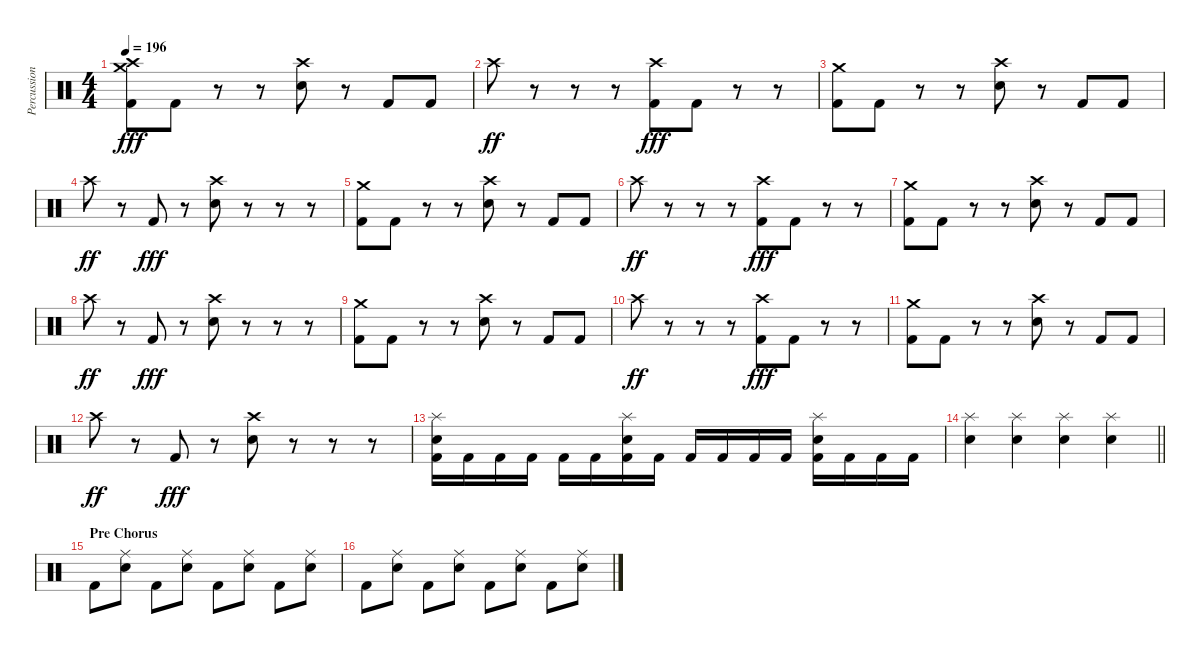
\track ("Percussion" "Percussion") {instrument percussion}
\staff {score}
\articulation defaults
\ts (4 4)
\tempo 196
\clef neutral
\ks c
("Crash medium (hit)" "Crash high (hit)" "Kick (hit) 2").8{dy fff} "Kick (hit) 2".8 r.8 r.8 ("Crash high (hit)" "Electric Snare (hit)").8 r.8 "Kick (hit) 2".8 "Kick (hit) 2".8 |
"Crash high (hit)".8{dy ff} r.8 r.8 r.8 ("Crash high (hit)" "Kick (hit) 2").8{dy fff} "Kick (hit) 2".8 r.8 r.8 |
("Crash medium (hit)" "Kick (hit) 2").8 "Kick (hit) 2".8 r.8 r.8 ("Crash high (hit)" "Electric Snare (hit)").8 r.8 "Kick (hit) 2".8 "Kick (hit) 2".8 |
"Crash high (hit)".8{dy ff} r.8 "Kick (hit) 2".8{dy fff} r.8 ("Crash high (hit)" "Electric Snare (hit)").8 r.8 r.8 r.8 |
("Crash medium (hit)" "Kick (hit) 2").8 "Kick (hit) 2".8 r.8 r.8 ("Crash high (hit)" "Electric Snare (hit)").8 r.8 "Kick (hit) 2".8 "Kick (hit) 2".8 |
"Crash high (hit)".8{dy ff} r.8 r.8 r.8 ("Crash high (hit)" "Kick (hit) 2").8{dy fff} "Kick (hit) 2".8 r.8 r.8 |
("Crash medium (hit)" "Kick (hit) 2").8 "Kick (hit) 2".8 r.8 r.8 ("Crash high (hit)" "Electric Snare (hit)").8 r.8 "Kick (hit) 2".8 "Kick (hit) 2".8 |
"Crash high (hit)".8{dy ff} r.8 "Kick (hit) 2".8{dy fff} r.8 ("Crash high (hit)" "Electric Snare (hit)").8 r.8 r.8 r.8 |
("Crash medium (hit)" "Kick (hit) 2").8 "Kick (hit) 2".8 r.8 r.8 ("Crash high (hit)" "Electric Snare (hit)").8 r.8 "Kick (hit) 2".8 "Kick (hit) 2".8 |
"Crash high (hit)".8{dy ff} r.8 r.8 r.8 ("Crash high (hit)" "Kick (hit) 2").8{dy fff} "Kick (hit) 2".8 r.8 r.8 |
("Crash medium (hit)" "Kick (hit) 2").8 "Kick (hit) 2".8 r.8 r.8 ("Crash high (hit)" "Electric Snare (hit)").8 r.8 "Kick (hit) 2".8 "Kick (hit) 2".8 |
"Crash high (hit)".8{dy ff} r.8 "Kick (hit) 2".8{dy fff} r.8 ("Crash high (hit)" "Electric Snare (hit)").8 r.8 r.8 r.8 |
("Splash (hit)" "Electric Snare (hit)" "Kick (hit) 2").16 "Kick (hit) 2".16 "Kick (hit) 2".16 "Kick (hit) 2".16 "Kick (hit) 2".16 "Kick (hit) 2".16 ("Splash (hit)" "Electric Snare (hit)" "Kick (hit) 2").16 "Kick (hit) 2".16 "Kick (hit) 2".16 "Kick (hit) 2".16 "Kick (hit) 2".16 "Kick (hit) 2".16 ("Splash (hit)" "Electric Snare (hit)" "Kick (hit) 2").16 "Kick (hit) 2".16 "Kick (hit) 2".16 "Kick (hit) 2".16 |
\barLineRight lightlight
("Splash (hit)" "Electric Snare (hit)").4 ("Splash (hit)" "Electric Snare (hit)").4 ("Splash (hit)" "Electric Snare (hit)").4 ("Splash (hit)" "Electric Snare (hit)").4 |
\section ("" "Pre Chorus")
"Kick (hit) 2".8 ("Ride (middle)" "Electric Snare (hit)").8 "Kick (hit) 2".8 ("Ride (middle)" "Electric Snare (hit)").8 "Kick (hit) 2".8 ("Ride (middle)" "Electric Snare (hit)").8 "Kick (hit) 2".8 ("Ride (middle)" "Electric Snare (hit)").8 |
"Kick (hit) 2".8 ("Ride (middle)" "Electric Snare (hit)").8 "Kick (hit) 2".8 ("Ride (middle)" "Electric Snare (hit)").8 "Kick (hit) 2".8 ("Ride (middle)" "Electric Snare (hit)").8 "Kick (hit) 2".8 ("Ride (middle)" "Electric Snare (hit)").8
